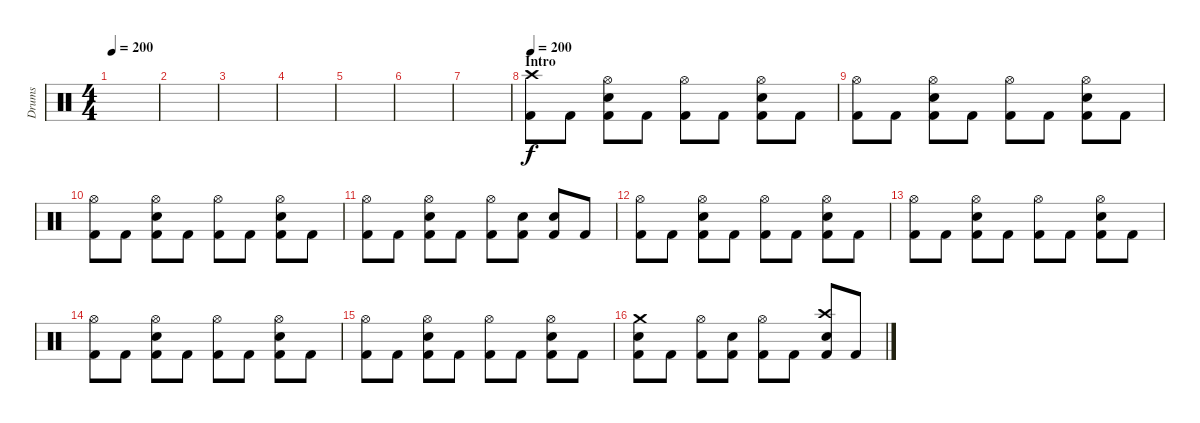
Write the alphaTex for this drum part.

\track ("Drums" "Drums") {instrument percussion}
\staff {score}
\articulation defaults
\ts (4 4)
\tempo 200
\clef neutral
\ks c
|
|
|
|
|
|
|
\section ("" "Intro")
\tempo 200
("Kick (hit) 2" "Crash high (hit)").8 "Kick (hit) 2".8 ("Kick (hit) 2" "Snare (hit) 2" "Hi-Hat (open)").8 "Kick (hit) 2".8 ("Kick (hit) 2" "Hi-Hat (open)").8 "Kick (hit) 2".8 ("Kick (hit) 2" "Snare (hit) 2" "Hi-Hat (open)").8 "Kick (hit) 2".8 |
("Kick (hit) 2" "Hi-Hat (open)").8 "Kick (hit) 2".8 ("Kick (hit) 2" "Snare (hit) 2" "Hi-Hat (open)").8 "Kick (hit) 2".8 ("Kick (hit) 2" "Hi-Hat (open)").8 "Kick (hit) 2".8 ("Kick (hit) 2" "Snare (hit) 2" "Hi-Hat (open)").8 "Kick (hit) 2".8 |
("Kick (hit) 2" "Hi-Hat (open)").8 "Kick (hit) 2".8 ("Kick (hit) 2" "Snare (hit) 2" "Hi-Hat (open)").8 "Kick (hit) 2".8 ("Kick (hit) 2" "Hi-Hat (open)").8 "Kick (hit) 2".8 ("Kick (hit) 2" "Snare (hit) 2" "Hi-Hat (open)").8 "Kick (hit) 2".8 |
("Kick (hit) 2" "Hi-Hat (open)").8 "Kick (hit) 2".8 ("Kick (hit) 2" "Snare (hit) 2" "Hi-Hat (open)").8 "Kick (hit) 2".8 ("Kick (hit) 2" "Hi-Hat (open)").8 ("Kick (hit) 2" "Snare (hit) 2").8 ("Kick (hit) 2" "Snare (hit) 2").8 "Kick (hit) 2".8 |
("Kick (hit) 2" "Hi-Hat (open)").8 "Kick (hit) 2".8 ("Kick (hit) 2" "Snare (hit) 2" "Hi-Hat (open)").8 "Kick (hit) 2".8 ("Kick (hit) 2" "Hi-Hat (open)").8 "Kick (hit) 2".8 ("Kick (hit) 2" "Snare (hit) 2" "Hi-Hat (open)").8 "Kick (hit) 2".8 |
("Kick (hit) 2" "Hi-Hat (open)").8 "Kick (hit) 2".8 ("Kick (hit) 2" "Snare (hit) 2" "Hi-Hat (open)").8 "Kick (hit) 2".8 ("Kick (hit) 2" "Hi-Hat (open)").8 "Kick (hit) 2".8 ("Kick (hit) 2" "Snare (hit) 2" "Hi-Hat (open)").8 "Kick (hit) 2".8 |
("Kick (hit) 2" "Hi-Hat (open)").8 "Kick (hit) 2".8 ("Kick (hit) 2" "Snare (hit) 2" "Hi-Hat (open)").8 "Kick (hit) 2".8 ("Kick (hit) 2" "Hi-Hat (open)").8 "Kick (hit) 2".8 ("Kick (hit) 2" "Snare (hit) 2" "Hi-Hat (open)").8 "Kick (hit) 2".8 |
("Kick (hit) 2" "Hi-Hat (open)").8 "Kick (hit) 2".8 ("Kick (hit) 2" "Snare (hit) 2" "Hi-Hat (open)").8 "Kick (hit) 2".8 ("Kick (hit) 2" "Hi-Hat (open)").8 "Kick (hit) 2".8 ("Kick (hit) 2" "Snare (hit) 2" "Hi-Hat (open)").8 "Kick (hit) 2".8 |
("Kick (hit) 2" "Snare (hit) 2" "Crash medium (hit)").8 "Kick (hit) 2".8 ("Kick (hit) 2" "Hi-Hat (open)").8 ("Kick (hit) 2" "Snare (hit) 2").8 ("Kick (hit) 2" "Hi-Hat (open)").8 "Kick (hit) 2".8 ("Kick (hit) 2" "Snare (hit) 2" "Crash high (hit)").8 "Kick (hit) 2".8
